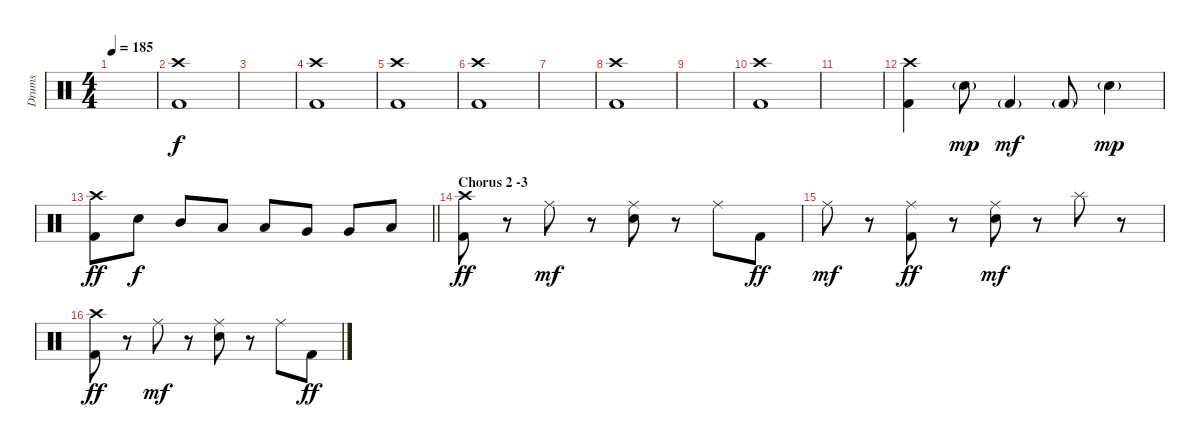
\track ("Drums" "Drums") {instrument percussion}
\staff {score}
\articulation defaults
\ts (4 4)
\tempo 185
\clef neutral
\ks c
|
("Crash high (hit)" "Kick (hit) 2").1 |
|
("Crash high (hit)" "Kick (hit) 2").1 |
("Crash high (hit)" "Kick (hit) 2").1 |
("Crash high (hit)" "Kick (hit) 2").1 |
|
("Crash high (hit)" "Kick (hit) 2").1 |
|
("Crash high (hit)" "Kick (hit) 2").1 |
|
("Crash high (hit)" "Kick (hit) 2").4 "Electric Snare (hit)"{g}.8{dy mp} "Kick (hit) 2"{g}.4{dy mf} "Kick (hit) 2"{g}.8 "Electric Snare (hit)"{g}.4{dy mp} |
\barLineRight lightlight
("Crash high (hit)" "Kick (hit) 2").8{dy ff} "Electric Snare (hit)".8{dy f} "Mid Tom (hit)".8 "Low Tom (hit)".8 "Low Tom (hit)".8 "Very Low Tom (hit)".8 "Very Low Tom (hit)".8 "Low Floor Tom (hit)".8 |
\section ("" "Chorus 2 -3")
("Crash high (hit)" "Kick (hit) 2").8{dy ff} r.8 "Ride (middle)".8{dy mf} r.8 ("Ride (middle)" "Electric Snare (hit)").8 r.8 "Ride (middle)".8 "Kick (hit) 2".8{dy ff} |
"Ride (middle)".8{dy mf} r.8 ("Ride (middle)" "Kick (hit) 2").8{dy ff} r.8 ("Ride (middle)" "Electric Snare (hit)").8{dy mf} r.8 "Splash (hit)".8 r.8 |
("Crash high (hit)" "Kick (hit) 2").8{dy ff} r.8 "Ride (middle)".8{dy mf} r.8 ("Ride (middle)" "Electric Snare (hit)").8 r.8 "Ride (middle)".8 "Kick (hit) 2".8{dy ff}
